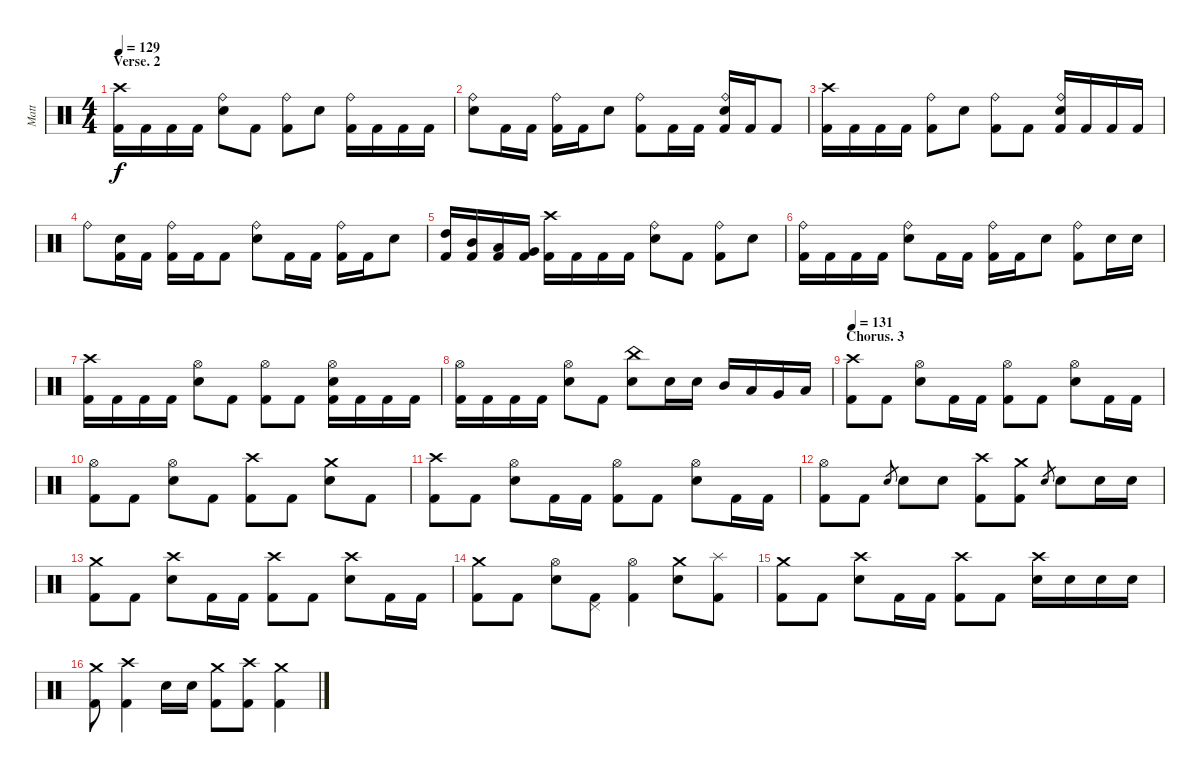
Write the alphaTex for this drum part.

\track ("Matt" "Matt") {instrument percussion}
\staff {score}
\articulation defaults
\ts (4 4)
\section ("" "Verse. 2")
\tempo 129
\clef neutral
\ks c
("Crash high (hit)" "Kick (hit) 2").16{dy f} "Kick (hit) 2".16 "Kick (hit) 2".16 "Kick (hit) 2".16 ("Ride (bell)" "Electric Snare (hit)").8 "Kick (hit) 2".8 ("Ride (bell)" "Kick (hit) 2").8 "Electric Snare (hit)".8 ("Ride (bell)" "Kick (hit) 2").16 "Kick (hit) 2".16 "Kick (hit) 2".16 "Kick (hit) 2".16 |
("Ride (bell)" "Electric Snare (hit)").8 "Kick (hit) 2".16 "Kick (hit) 2".16 ("Ride (bell)" "Kick (hit) 2").16 "Kick (hit) 2".16 "Electric Snare (hit)".8 ("Ride (bell)" "Kick (hit) 2").8 "Kick (hit) 2".16 "Kick (hit) 2".16 ("Ride (bell)" "Electric Snare (hit)" "Kick (hit) 2").16 "Kick (hit) 2".16 "Kick (hit) 2".8 |
("Crash high (hit)" "Kick (hit) 2").16 "Kick (hit) 2".16 "Kick (hit) 2".16 "Kick (hit) 2".16 ("Ride (bell)" "Kick (hit) 2").8 "Electric Snare (hit)".8 ("Ride (bell)" "Kick (hit) 2").8 "Kick (hit) 2".8 ("Ride (bell)" "Electric Snare (hit)" "Kick (hit) 2").16 "Kick (hit) 2".16 "Kick (hit) 2".16 "Kick (hit) 2".16 |
"Ride (bell)".8 ("Electric Snare (hit)" "Kick (hit) 2").16 "Kick (hit) 2".16 ("Ride (bell)" "Kick (hit) 2").16 "Kick (hit) 2".16 "Kick (hit) 2".8 ("Ride (bell)" "Electric Snare (hit)").8 "Kick (hit) 2".16 "Kick (hit) 2".16 ("Ride (bell)" "Kick (hit) 2").16 "Kick (hit) 2".16 "Electric Snare (hit)".8 |
("High Tom (hit)" "Kick (hit) 2").16 ("Mid Tom (hit)" "Kick (hit) 2").16 ("Low Tom (hit)" "Kick (hit) 2").16 ("Very Low Tom (hit)" "Kick (hit) 2").16 ("Crash high (hit)" "Kick (hit) 2").16 "Kick (hit) 2".16 "Kick (hit) 2".16 "Kick (hit) 2".16 ("Ride (bell)" "Electric Snare (hit)").8 "Kick (hit) 2".8 ("Ride (bell)" "Kick (hit) 2").8 "Electric Snare (hit)".8 |
("Ride (bell)" "Kick (hit) 2").16 "Kick (hit) 2".16 "Kick (hit) 2".16 "Kick (hit) 2".16 ("Ride (bell)" "Electric Snare (hit)").8 "Kick (hit) 2".16 "Kick (hit) 2".16 ("Ride (bell)" "Kick (hit) 2").16 "Kick (hit) 2".16 "Electric Snare (hit)".8 ("Ride (bell)" "Kick (hit) 2").8 "Electric Snare (hit)".16 "Electric Snare (hit)".16 |
("Crash high (hit)" "Kick (hit) 2").16 "Kick (hit) 2".16 "Kick (hit) 2".16 "Kick (hit) 2".16 ("Hi-Hat (open)" "Electric Snare (hit)").8 "Kick (hit) 2".8 ("Hi-Hat (open)" "Kick (hit) 2").8 "Kick (hit) 2".8 ("Hi-Hat (open)" "Electric Snare (hit)" "Kick (hit) 2").16 "Kick (hit) 2".16 "Kick (hit) 2".16 "Kick (hit) 2".16 |
("Hi-Hat (open)" "Kick (hit) 2").16 "Kick (hit) 2".16 "Kick (hit) 2".16 "Kick (hit) 2".16 ("Hi-Hat (open)" "Electric Snare (hit)").8 "Kick (hit) 2".8 ("China (hit)" "Electric Snare (hit)").8 "Electric Snare (hit)".16 "Electric Snare (hit)".16 "Mid Tom (hit)".16 "Low Tom (hit)".16 "Very Low Tom (hit)".16 "Low Floor Tom (hit)".16 |
\section ("" "Chorus. 3")
\tempo 131
("Crash high (hit)" "Kick (hit) 2").8 "Kick (hit) 2".8 ("Hi-Hat (open)" "Electric Snare (hit)").8 "Kick (hit) 2".16 "Kick (hit) 2".16 ("Hi-Hat (open)" "Kick (hit) 2").8 "Kick (hit) 2".8 ("Hi-Hat (open)" "Electric Snare (hit)").8 "Kick (hit) 2".16 "Kick (hit) 2".16 |
("Hi-Hat (open)" "Kick (hit) 2").8 "Kick (hit) 2".8 ("Hi-Hat (open)" "Electric Snare (hit)").8 "Kick (hit) 2".8 ("Crash high (hit)" "Kick (hit) 2").8 "Kick (hit) 2".8 ("Crash medium (hit)" "Electric Snare (hit)").8 "Kick (hit) 2".8 |
("Crash high (hit)" "Kick (hit) 2").8 "Kick (hit) 2".8 ("Hi-Hat (open)" "Electric Snare (hit)").8 "Kick (hit) 2".16 "Kick (hit) 2".16 ("Hi-Hat (open)" "Kick (hit) 2").8 "Kick (hit) 2".8 ("Hi-Hat (open)" "Electric Snare (hit)").8 "Kick (hit) 2".16 "Kick (hit) 2".16 |
("Hi-Hat (open)" "Kick (hit) 2").8 "Kick (hit) 2".8 "Electric Snare (hit)".8{gr} "Electric Snare (hit)".8 "Electric Snare (hit)".8 ("Crash high (hit)" "Kick (hit) 2").8 ("Crash medium (hit)" "Kick (hit) 2").8 "Electric Snare (hit)".8{gr} "Electric Snare (hit)".8 "Electric Snare (hit)".16 "Electric Snare (hit)".16 |
("Crash medium (hit)" "Kick (hit) 2").8 "Kick (hit) 2".8 ("Crash high (hit)" "Electric Snare (hit)").8 "Kick (hit) 2".16 "Kick (hit) 2".16 ("Crash high (hit)" "Kick (hit) 2").8 "Kick (hit) 2".8 ("Crash high (hit)" "Electric Snare (hit)").8 "Kick (hit) 2".16 "Kick (hit) 2".16 |
("Crash medium (hit)" "Kick (hit) 2").8 "Kick (hit) 2".8 ("Hi-Hat (open)" "Electric Snare (hit)").8 ("Pedal Hi-Hat (hit)" "Kick (hit) 2").8 ("Hi-Hat (open)" "Kick (hit) 2").4 ("Crash medium (hit)" "Electric Snare (hit)").8 ("Splash (hit)" "Kick (hit) 2").8 |
("Crash medium (hit)" "Kick (hit) 2").8 "Kick (hit) 2".8 ("Crash high (hit)" "Electric Snare (hit)").8 "Kick (hit) 2".16 "Kick (hit) 2".16 ("Crash high (hit)" "Kick (hit) 2").8 "Kick (hit) 2".8 ("Crash high (hit)" "Electric Snare (hit)").16 "Electric Snare (hit)".16 "Electric Snare (hit)".16 "Electric Snare (hit)".16 |
("Crash medium (hit)" "Kick (hit) 2").8 ("Crash high (hit)" "Kick (hit) 2").4 "Electric Snare (hit)".16 "Electric Snare (hit)".16 ("Crash medium (hit)" "Kick (hit) 2").8 ("Crash high (hit)" "Kick (hit) 2").8 ("Crash medium (hit)" "Kick (hit) 2").4
